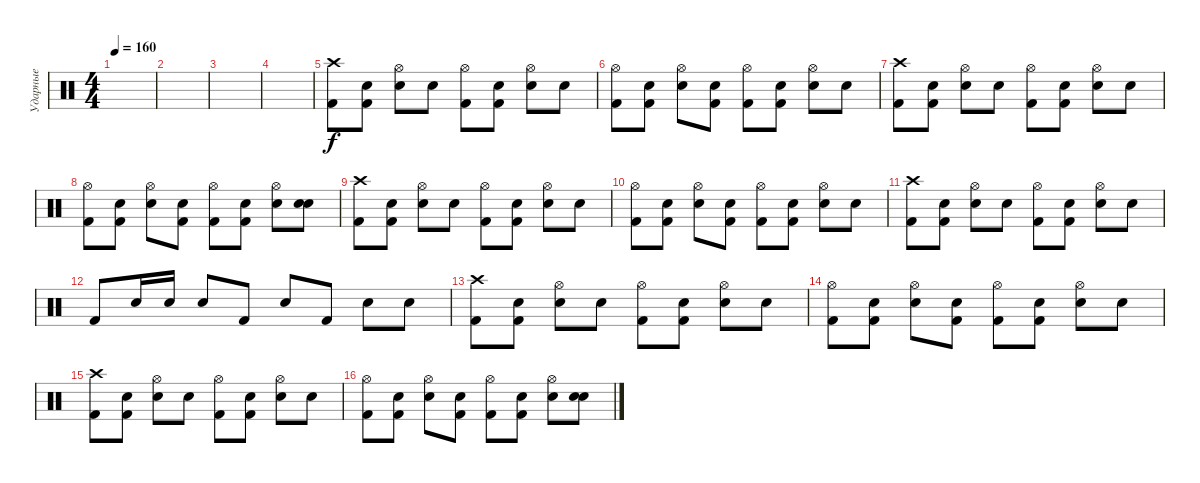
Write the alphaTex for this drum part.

\track ("Ударные" "Ударные") {instrument percussion}
\staff {score}
\articulation defaults
\ts (4 4)
\tempo 160
\clef neutral
\ks c
|
|
|
|
("Crash high (hit)" "Kick (hit) 2").8 ("Snare (hit)" "Kick (hit) 2").8 ("Hi-Hat (open)" "Electric Snare (hit)").8 "Snare (hit)".8 ("Hi-Hat (open)" "Kick (hit) 2").8 ("Snare (hit)" "Kick (hit) 2").8 ("Hi-Hat (open)" "Electric Snare (hit)").8 "Snare (hit)".8 |
("Hi-Hat (open)" "Kick (hit) 2").8 ("Snare (hit)" "Kick (hit) 2").8 ("Hi-Hat (open)" "Electric Snare (hit)").8 ("Snare (hit)" "Kick (hit) 2").8 ("Hi-Hat (open)" "Kick (hit) 2").8 ("Snare (hit)" "Kick (hit) 2").8 ("Hi-Hat (open)" "Electric Snare (hit)").8 "Snare (hit)".8 |
("Crash high (hit)" "Kick (hit) 2").8 ("Snare (hit)" "Kick (hit) 2").8 ("Hi-Hat (open)" "Electric Snare (hit)").8 "Snare (hit)".8 ("Hi-Hat (open)" "Kick (hit) 2").8 ("Snare (hit)" "Kick (hit) 2").8 ("Hi-Hat (open)" "Electric Snare (hit)").8 "Snare (hit)".8 |
("Hi-Hat (open)" "Kick (hit) 2").8 ("Snare (hit)" "Kick (hit) 2").8 ("Hi-Hat (open)" "Electric Snare (hit)").8 ("Snare (hit)" "Kick (hit) 2").8 ("Hi-Hat (open)" "Kick (hit) 2").8 ("Snare (hit)" "Kick (hit) 2").8 ("Hi-Hat (open)" "Electric Snare (hit)").8 ("Snare (hit)" "Electric Snare (hit)").8 |
("Crash high (hit)" "Kick (hit) 2").8 ("Snare (hit)" "Kick (hit) 2").8 ("Hi-Hat (open)" "Electric Snare (hit)").8 "Snare (hit)".8 ("Hi-Hat (open)" "Kick (hit) 2").8 ("Snare (hit)" "Kick (hit) 2").8 ("Hi-Hat (open)" "Electric Snare (hit)").8 "Snare (hit)".8 |
("Hi-Hat (open)" "Kick (hit) 2").8 ("Snare (hit)" "Kick (hit) 2").8 ("Hi-Hat (open)" "Electric Snare (hit)").8 ("Snare (hit)" "Kick (hit) 2").8 ("Hi-Hat (open)" "Kick (hit) 2").8 ("Snare (hit)" "Kick (hit) 2").8 ("Hi-Hat (open)" "Electric Snare (hit)").8 "Snare (hit)".8 |
("Crash high (hit)" "Kick (hit) 2").8 ("Snare (hit)" "Kick (hit) 2").8 ("Hi-Hat (open)" "Electric Snare (hit)").8 "Snare (hit)".8 ("Hi-Hat (open)" "Kick (hit) 2").8 ("Snare (hit)" "Kick (hit) 2").8 ("Hi-Hat (open)" "Electric Snare (hit)").8 "Snare (hit)".8 |
"Kick (hit) 2".8 "Electric Snare (hit)".16 "Electric Snare (hit)".16 "Electric Snare (hit)".8 "Kick (hit) 2".8 "Electric Snare (hit)".8 "Kick (hit) 2".8 "Electric Snare (hit)".8 "Electric Snare (hit)".8 |
("Crash high (hit)" "Kick (hit) 2").8 ("Snare (hit)" "Kick (hit) 2").8 ("Hi-Hat (open)" "Electric Snare (hit)").8 "Snare (hit)".8 ("Hi-Hat (open)" "Kick (hit) 2").8 ("Snare (hit)" "Kick (hit) 2").8 ("Hi-Hat (open)" "Electric Snare (hit)").8 "Snare (hit)".8 |
("Hi-Hat (open)" "Kick (hit) 2").8 ("Snare (hit)" "Kick (hit) 2").8 ("Hi-Hat (open)" "Electric Snare (hit)").8 ("Snare (hit)" "Kick (hit) 2").8 ("Hi-Hat (open)" "Kick (hit) 2").8 ("Snare (hit)" "Kick (hit) 2").8 ("Hi-Hat (open)" "Electric Snare (hit)").8 "Snare (hit)".8 |
("Crash high (hit)" "Kick (hit) 2").8 ("Snare (hit)" "Kick (hit) 2").8 ("Hi-Hat (open)" "Electric Snare (hit)").8 "Snare (hit)".8 ("Hi-Hat (open)" "Kick (hit) 2").8 ("Snare (hit)" "Kick (hit) 2").8 ("Hi-Hat (open)" "Electric Snare (hit)").8 "Snare (hit)".8 |
("Hi-Hat (open)" "Kick (hit) 2").8 ("Snare (hit)" "Kick (hit) 2").8 ("Hi-Hat (open)" "Electric Snare (hit)").8 ("Snare (hit)" "Kick (hit) 2").8 ("Hi-Hat (open)" "Kick (hit) 2").8 ("Snare (hit)" "Kick (hit) 2").8 ("Hi-Hat (open)" "Electric Snare (hit)").8 ("Snare (hit)" "Electric Snare (hit)").8
